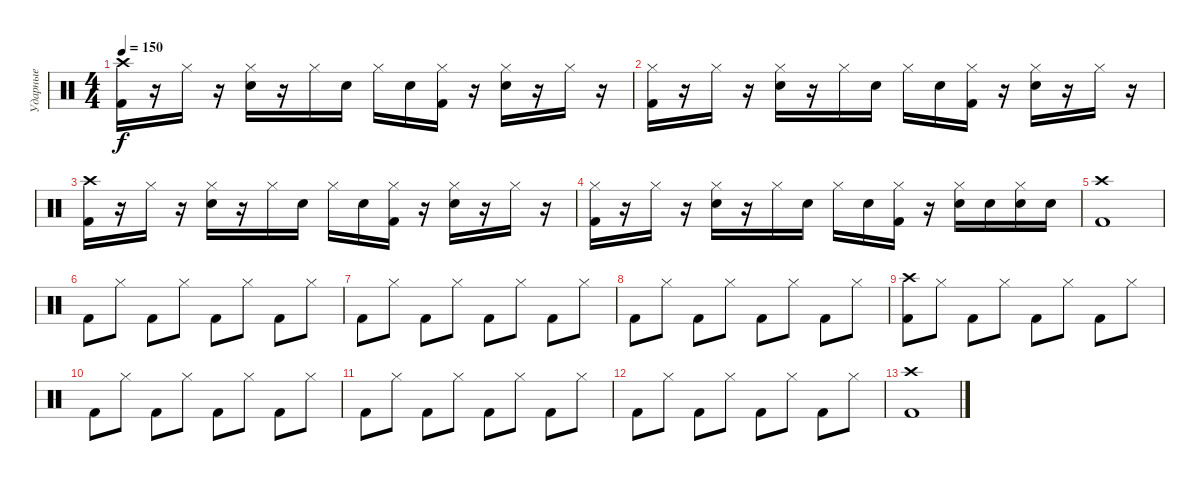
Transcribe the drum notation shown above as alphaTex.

\track ("Ударные" "Ударные") {instrument percussion}
\staff {score}
\articulation defaults
\ts (4 4)
\tempo 150
\clef neutral
\ks c
("Kick (hit) 2" "Crash high (hit)").16{dy f} r.16 "Hi-Hat (closed)".16 r.16 ("Electric Snare (hit)" "Hi-Hat (closed)").16 r.16 "Hi-Hat (closed)".16 "Electric Snare (hit)".16 "Hi-Hat (closed)".16 "Electric Snare (hit)".16 ("Kick (hit) 2" "Hi-Hat (closed)").16 r.16 ("Electric Snare (hit)" "Hi-Hat (closed)").16 r.16 "Hi-Hat (closed)".16 r.16 |
("Kick (hit) 2" "Hi-Hat (closed)").16 r.16 "Hi-Hat (closed)".16 r.16 ("Electric Snare (hit)" "Hi-Hat (closed)").16 r.16 "Hi-Hat (closed)".16 "Electric Snare (hit)".16 "Hi-Hat (closed)".16 "Electric Snare (hit)".16 ("Kick (hit) 2" "Hi-Hat (closed)").16 r.16 ("Electric Snare (hit)" "Hi-Hat (closed)").16 r.16 "Hi-Hat (closed)".16 r.16 |
("Kick (hit) 2" "Crash high (hit)").16 r.16 "Hi-Hat (closed)".16 r.16 ("Electric Snare (hit)" "Hi-Hat (closed)").16 r.16 "Hi-Hat (closed)".16 "Electric Snare (hit)".16 "Hi-Hat (closed)".16 "Electric Snare (hit)".16 ("Kick (hit) 2" "Hi-Hat (closed)").16 r.16 ("Electric Snare (hit)" "Hi-Hat (closed)").16 r.16 "Hi-Hat (closed)".16 r.16 |
("Kick (hit) 2" "Hi-Hat (closed)").16 r.16 "Hi-Hat (closed)".16 r.16 ("Electric Snare (hit)" "Hi-Hat (closed)").16 r.16 "Hi-Hat (closed)".16 "Electric Snare (hit)".16 "Hi-Hat (closed)".16 "Electric Snare (hit)".16 ("Kick (hit) 2" "Hi-Hat (closed)").16 r.16 ("Electric Snare (hit)" "Hi-Hat (closed)").16 "Electric Snare (hit)".16 ("Electric Snare (hit)" "Hi-Hat (closed)").16 "Electric Snare (hit)".16 |
("Kick (hit) 2" "Crash high (hit)").1 |
"Kick (hit) 2".8 "Hi-Hat (closed)".8 "Kick (hit) 2".8 "Hi-Hat (closed)".8 "Kick (hit) 2".8 "Hi-Hat (closed)".8 "Kick (hit) 2".8 "Hi-Hat (closed)".8 |
"Kick (hit) 2".8 "Hi-Hat (closed)".8 "Kick (hit) 2".8 "Hi-Hat (closed)".8 "Kick (hit) 2".8 "Hi-Hat (closed)".8 "Kick (hit) 2".8 "Hi-Hat (closed)".8 |
"Kick (hit) 2".8 "Hi-Hat (closed)".8 "Kick (hit) 2".8 "Hi-Hat (closed)".8 "Kick (hit) 2".8 "Hi-Hat (closed)".8 "Kick (hit) 2".8 "Hi-Hat (closed)".8 |
("Kick (hit) 2" "Crash high (hit)").8 "Hi-Hat (closed)".8 "Kick (hit) 2".8 "Hi-Hat (closed)".8 "Kick (hit) 2".8 "Hi-Hat (closed)".8 "Kick (hit) 2".8 "Hi-Hat (closed)".8 |
"Kick (hit) 2".8 "Hi-Hat (closed)".8 "Kick (hit) 2".8 "Hi-Hat (closed)".8 "Kick (hit) 2".8 "Hi-Hat (closed)".8 "Kick (hit) 2".8 "Hi-Hat (closed)".8 |
"Kick (hit) 2".8 "Hi-Hat (closed)".8 "Kick (hit) 2".8 "Hi-Hat (closed)".8 "Kick (hit) 2".8 "Hi-Hat (closed)".8 "Kick (hit) 2".8 "Hi-Hat (closed)".8 |
"Kick (hit) 2".8 "Hi-Hat (closed)".8 "Kick (hit) 2".8 "Hi-Hat (closed)".8 "Kick (hit) 2".8 "Hi-Hat (closed)".8 "Kick (hit) 2".8 "Hi-Hat (closed)".8 |
("Kick (hit) 2" "Crash high (hit)").1
